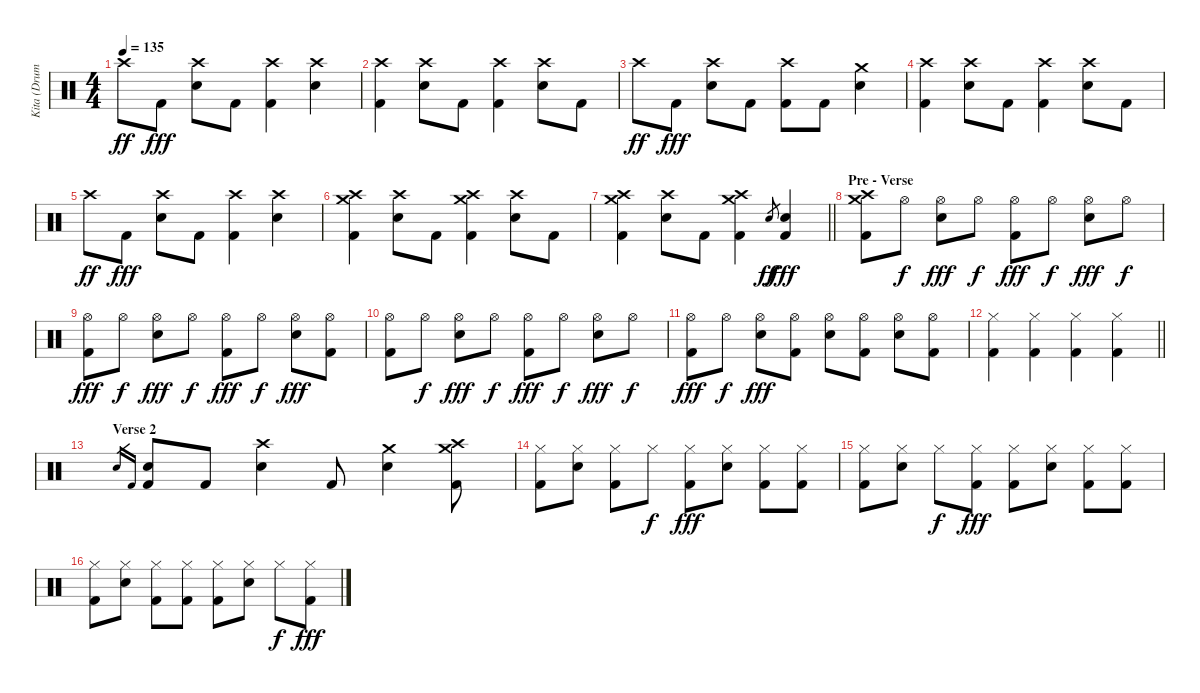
\track ("Kita (Drums)" "Kita (Drum") {instrument percussion}
\staff {score}
\articulation defaults
\ts (4 4)
\tempo 135
\clef neutral
\ks c "Crash high (hit)".8{dy ff} "Kick (hit) 2".8{dy fff}
("Crash high (hit)" "Electric Snare (hit)").8 "Kick (hit) 2".8 ("Crash high (hit)" "Kick (hit) 2").4 ("Crash high (hit)" "Electric Snare (hit)").4 |
("Crash high (hit)" "Kick (hit) 2").4 ("Crash high (hit)" "Electric Snare (hit)").8 "Kick (hit) 2".8 ("Crash high (hit)" "Kick (hit) 2").4 ("Crash high (hit)" "Electric Snare (hit)").8 "Kick (hit) 2".8 |
"Crash high (hit)".8{dy ff} "Kick (hit) 2".8{dy fff} ("Crash high (hit)" "Electric Snare (hit)").8 "Kick (hit) 2".8 ("Crash high (hit)" "Kick (hit) 2").8 "Kick (hit) 2".8 ("Crash medium (hit)" "Electric Snare (hit)").4 |
("Crash high (hit)" "Kick (hit) 2").4 ("Crash high (hit)" "Electric Snare (hit)").8 "Kick (hit) 2".8 ("Crash high (hit)" "Kick (hit) 2").4 ("Crash high (hit)" "Electric Snare (hit)").8 "Kick (hit) 2".8 |
"Crash high (hit)".8{dy ff} "Kick (hit) 2".8{dy fff} ("Crash high (hit)" "Electric Snare (hit)").8 "Kick (hit) 2".8 ("Crash high (hit)" "Kick (hit) 2").4 ("Crash high (hit)" "Electric Snare (hit)").4 |
("Crash medium (hit)" "Crash high (hit)" "Kick (hit) 2").4 ("Crash high (hit)" "Electric Snare (hit)").8 "Kick (hit) 2".8 ("Crash medium (hit)" "Crash high (hit)" "Kick (hit) 2").4 ("Crash high (hit)" "Electric Snare (hit)").8 "Kick (hit) 2".8 |
\barLineRight lightlight
("Crash medium (hit)" "Crash high (hit)" "Kick (hit) 2").4 ("Crash high (hit)" "Electric Snare (hit)").8 "Kick (hit) 2".8 ("Crash medium (hit)" "Crash high (hit)" "Kick (hit) 2").4 "Electric Snare (hit)".8{gr dy ff} ("Electric Snare (hit)" "Kick (hit) 2").4{dy fff} |
\section ("" "Pre - Verse")
("Crash medium (hit)" "Crash high (hit)" "Kick (hit) 2").8 "Hi-Hat (open)".8{dy f} ("Hi-Hat (open)" "Electric Snare (hit)").8{dy fff} "Hi-Hat (open)".8{dy f} ("Hi-Hat (open)" "Kick (hit) 2").8{dy fff} "Hi-Hat (open)".8{dy f} ("Hi-Hat (open)" "Electric Snare (hit)").8{dy fff} "Hi-Hat (open)".8{dy f} |
("Hi-Hat (open)" "Kick (hit) 2").8{dy fff} "Hi-Hat (open)".8{dy f} ("Hi-Hat (open)" "Electric Snare (hit)").8{dy fff} "Hi-Hat (open)".8{dy f} ("Hi-Hat (open)" "Kick (hit) 2").8{dy fff} "Hi-Hat (open)".8{dy f} ("Hi-Hat (open)" "Electric Snare (hit)").8{dy fff} ("Hi-Hat (open)" "Kick (hit) 2").8 |
("Hi-Hat (open)" "Kick (hit) 2").8 "Hi-Hat (open)".8{dy f} ("Hi-Hat (open)" "Electric Snare (hit)").8{dy fff} "Hi-Hat (open)".8{dy f} ("Hi-Hat (open)" "Kick (hit) 2").8{dy fff} "Hi-Hat (open)".8{dy f} ("Hi-Hat (open)" "Electric Snare (hit)").8{dy fff} "Hi-Hat (open)".8{dy f} |
("Hi-Hat (open)" "Kick (hit) 2").8{dy fff} "Hi-Hat (open)".8{dy f} ("Hi-Hat (open)" "Electric Snare (hit)").8{dy fff} ("Hi-Hat (open)" "Kick (hit) 2").8 ("Hi-Hat (open)" "Electric Snare (hit)").8 ("Hi-Hat (open)" "Kick (hit) 2").8 ("Hi-Hat (open)" "Electric Snare (hit)").8 ("Hi-Hat (open)" "Kick (hit) 2").8 |
\barLineRight lightlight
("Hi-Hat (closed)" "Kick (hit) 2").4 ("Hi-Hat (closed)" "Kick (hit) 2").4 ("Hi-Hat (closed)" "Kick (hit) 2").4 ("Hi-Hat (closed)" "Kick (hit) 2").4 |
\section ("" "Verse 2")
"Electric Snare (hit)".16{gr} "Kick (hit) 2".16{gr} ("Electric Snare (hit)" "Kick (hit) 2").8 "Kick (hit) 2".8 ("Crash high (hit)" "Electric Snare (hit)").4 "Kick (hit) 2".8 ("Crash medium (hit)" "Electric Snare (hit)").4 ("Crash medium (hit)" "Crash high (hit)" "Kick (hit) 2").8 |
("Hi-Hat (closed)" "Kick (hit) 2").8 ("Hi-Hat (closed)" "Electric Snare (hit)").8 ("Hi-Hat (closed)" "Kick (hit) 2").8 "Hi-Hat (closed)".8{dy f} ("Hi-Hat (closed)" "Kick (hit) 2").8{dy fff} ("Hi-Hat (closed)" "Electric Snare (hit)").8 ("Hi-Hat (closed)" "Kick (hit) 2").8 ("Hi-Hat (closed)" "Kick (hit) 2").8 |
("Hi-Hat (closed)" "Kick (hit) 2").8 ("Hi-Hat (closed)" "Electric Snare (hit)").8 "Hi-Hat (closed)".8{dy f} ("Hi-Hat (closed)" "Kick (hit) 2").8{dy fff} ("Hi-Hat (closed)" "Kick (hit) 2").8 ("Hi-Hat (closed)" "Electric Snare (hit)").8 ("Hi-Hat (closed)" "Kick (hit) 2").8 ("Hi-Hat (closed)" "Kick (hit) 2").8 |
("Hi-Hat (closed)" "Kick (hit) 2").8 ("Hi-Hat (closed)" "Electric Snare (hit)").8 ("Hi-Hat (closed)" "Kick (hit) 2").8 ("Hi-Hat (closed)" "Kick (hit) 2").8 ("Hi-Hat (closed)" "Kick (hit) 2").8 ("Hi-Hat (closed)" "Electric Snare (hit)").8 "Hi-Hat (closed)".8{dy f} ("Hi-Hat (closed)" "Kick (hit) 2").8{dy fff}
